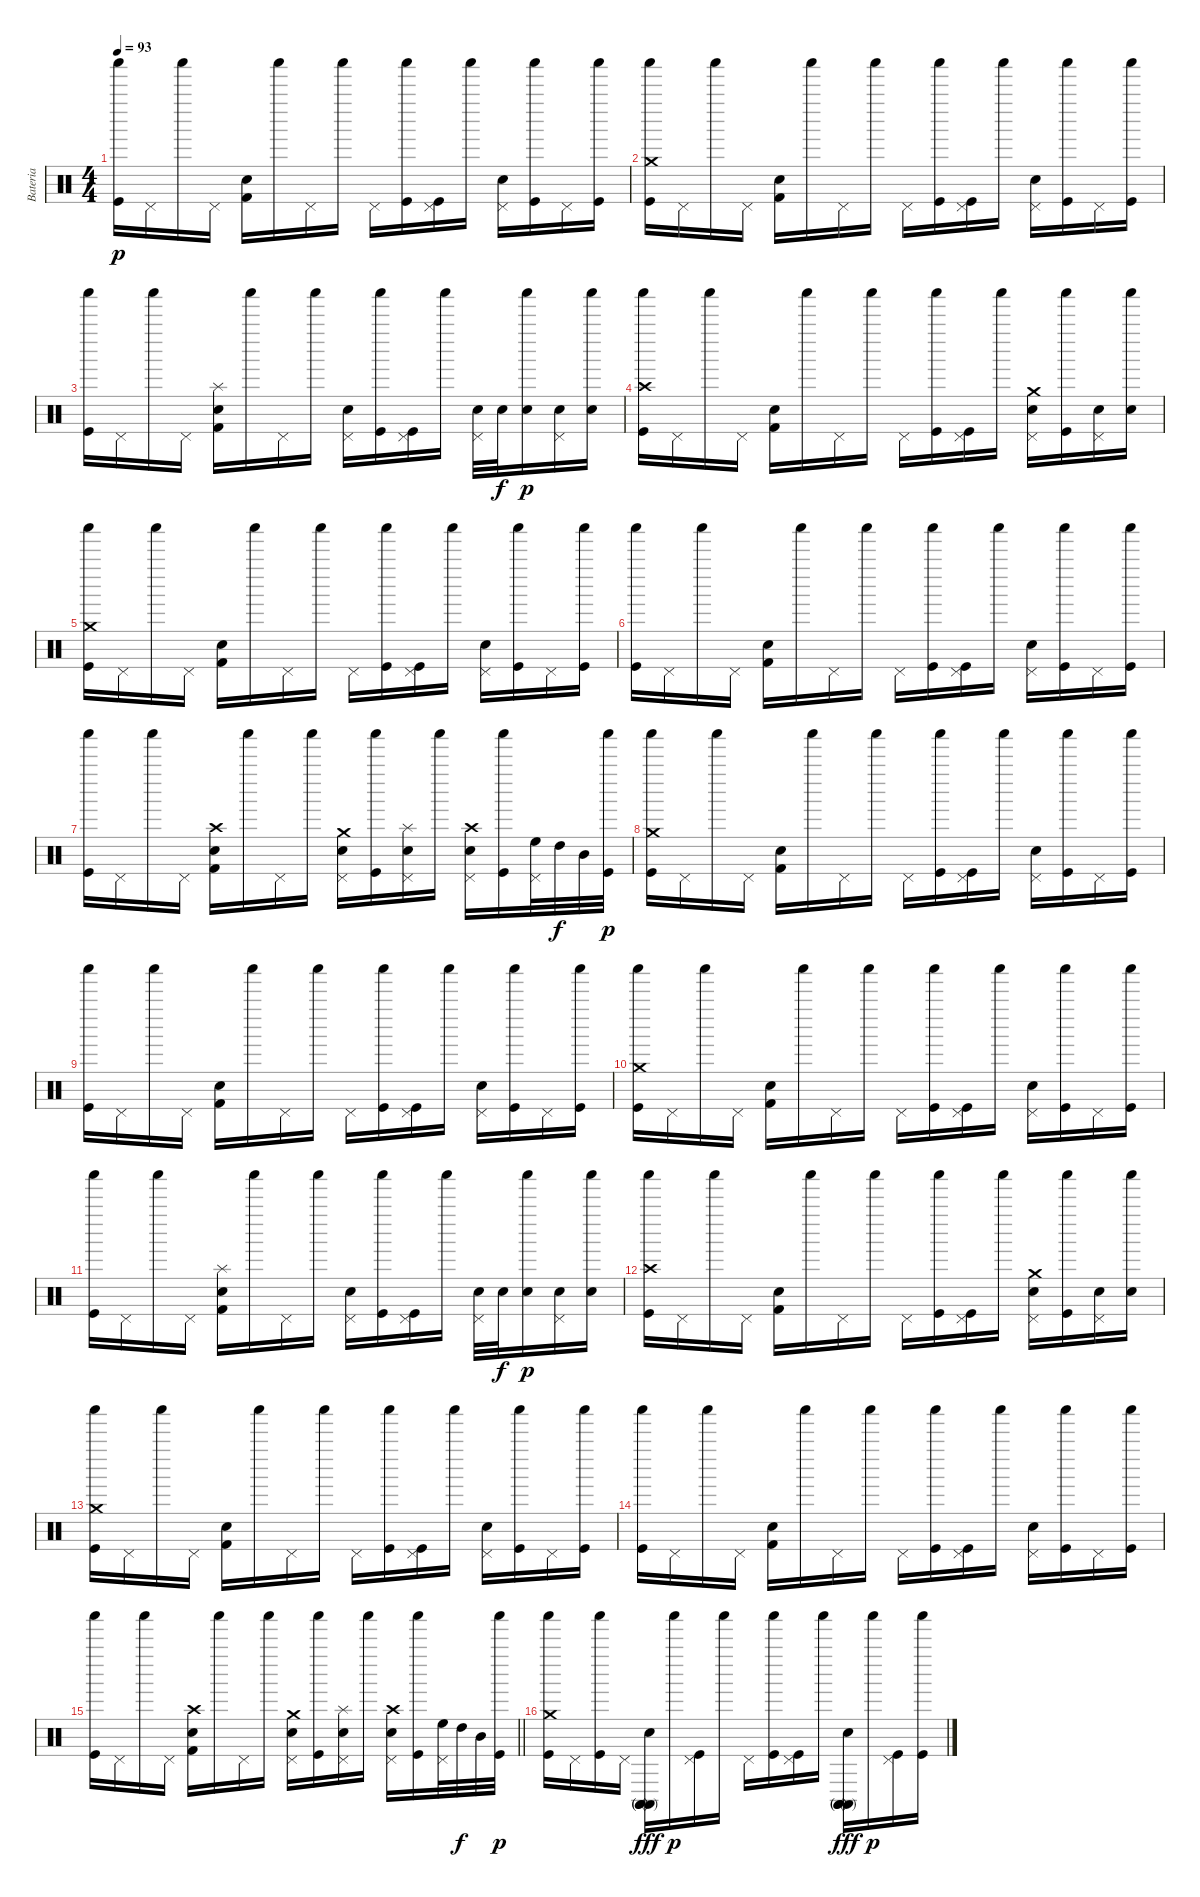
\track ("Bateria" "Bateria") {instrument percussion}
\staff {score}
\articulation defaults
\ts (4 4)
\tempo 93
\clef neutral
\ks c
("Kick (hit)" "Shaker (hit)").16{dy p} "Pedal Hi-Hat (hit)".16 "Shaker (hit)".16 "Pedal Hi-Hat (hit)".16 ("Electric Snare (hit)" "Kick (hit) 2").16 "Shaker (hit)".16 "Pedal Hi-Hat (hit)".16 "Shaker (hit)".16 "Pedal Hi-Hat (hit)".16 ("Kick (hit)" "Shaker (hit)").16 ("Kick (hit)" "Pedal Hi-Hat (hit)").16 "Shaker (hit)".16 ("Electric Snare (hit)" "Pedal Hi-Hat (hit)").16 ("Kick (hit)" "Shaker (hit)").16 "Pedal Hi-Hat (hit)".16 ("Kick (hit)" "Shaker (hit)").16 |
("Kick (hit)" "Shaker (hit)" "Crash medium (hit)").16 "Pedal Hi-Hat (hit)".16 "Shaker (hit)".16 "Pedal Hi-Hat (hit)".16 ("Electric Snare (hit)" "Kick (hit) 2").16 "Shaker (hit)".16 "Pedal Hi-Hat (hit)".16 "Shaker (hit)".16 "Pedal Hi-Hat (hit)".16 ("Kick (hit)" "Shaker (hit)").16 ("Kick (hit)" "Pedal Hi-Hat (hit)").16 "Shaker (hit)".16 ("Electric Snare (hit)" "Pedal Hi-Hat (hit)").16 ("Kick (hit)" "Shaker (hit)").16 "Pedal Hi-Hat (hit)".16 ("Kick (hit)" "Shaker (hit)").16 |
("Kick (hit)" "Shaker (hit)").16 "Pedal Hi-Hat (hit)".16 "Shaker (hit)".16 "Pedal Hi-Hat (hit)".16 ("Electric Snare (hit)" "Kick (hit) 2" "Splash (hit)").16 "Shaker (hit)".16 "Pedal Hi-Hat (hit)".16 "Shaker (hit)".16 ("Electric Snare (hit)" "Pedal Hi-Hat (hit)").16 ("Kick (hit)" "Shaker (hit)").16 ("Kick (hit)" "Pedal Hi-Hat (hit)").16 "Shaker (hit)".16 ("Electric Snare (hit)" "Pedal Hi-Hat (hit)").32 "Electric Snare (hit)".32{dy f} ("Electric Snare (hit)" "Shaker (hit)").16{dy p} ("Electric Snare (hit)" "Pedal Hi-Hat (hit)").16 ("Electric Snare (hit)" "Shaker (hit)").16 |
("Kick (hit)" "Shaker (hit)" "Crash high (hit)").16 "Pedal Hi-Hat (hit)".16 "Shaker (hit)".16 "Pedal Hi-Hat (hit)".16 ("Electric Snare (hit)" "Kick (hit) 2").16 "Shaker (hit)".16 "Pedal Hi-Hat (hit)".16 "Shaker (hit)".16 "Pedal Hi-Hat (hit)".16 ("Kick (hit)" "Shaker (hit)").16 ("Kick (hit)" "Pedal Hi-Hat (hit)").16 "Shaker (hit)".16 ("Electric Snare (hit)" "Pedal Hi-Hat (hit)" "Crash medium (hit)").16 ("Kick (hit)" "Shaker (hit)").16 ("Electric Snare (hit)" "Pedal Hi-Hat (hit)").16 ("Electric Snare (hit)" "Shaker (hit)").16 |
("Kick (hit)" "Shaker (hit)" "Crash medium (hit)").16 "Pedal Hi-Hat (hit)".16 "Shaker (hit)".16 "Pedal Hi-Hat (hit)".16 ("Electric Snare (hit)" "Kick (hit) 2").16 "Shaker (hit)".16 "Pedal Hi-Hat (hit)".16 "Shaker (hit)".16 "Pedal Hi-Hat (hit)".16 ("Kick (hit)" "Shaker (hit)").16 ("Kick (hit)" "Pedal Hi-Hat (hit)").16 "Shaker (hit)".16 ("Electric Snare (hit)" "Pedal Hi-Hat (hit)").16 ("Kick (hit)" "Shaker (hit)").16 "Pedal Hi-Hat (hit)".16 ("Kick (hit)" "Shaker (hit)").16 |
("Kick (hit)" "Shaker (hit)").16 "Pedal Hi-Hat (hit)".16 "Shaker (hit)".16 "Pedal Hi-Hat (hit)".16 ("Electric Snare (hit)" "Kick (hit) 2").16 "Shaker (hit)".16 "Pedal Hi-Hat (hit)".16 "Shaker (hit)".16 "Pedal Hi-Hat (hit)".16 ("Kick (hit)" "Shaker (hit)").16 ("Kick (hit)" "Pedal Hi-Hat (hit)").16 "Shaker (hit)".16 ("Electric Snare (hit)" "Pedal Hi-Hat (hit)").16 ("Kick (hit)" "Shaker (hit)").16 "Pedal Hi-Hat (hit)".16 ("Kick (hit)" "Shaker (hit)").16 |
("Kick (hit)" "Shaker (hit)").16 "Pedal Hi-Hat (hit)".16 "Shaker (hit)".16 "Pedal Hi-Hat (hit)".16 ("Electric Snare (hit)" "Kick (hit) 2" "Crash high (hit)").16 "Shaker (hit)".16 "Pedal Hi-Hat (hit)".16 "Shaker (hit)".16 ("Electric Snare (hit)" "Pedal Hi-Hat (hit)" "Crash medium (hit)").16 ("Kick (hit)" "Shaker (hit)").16 ("Electric Snare (hit)" "Pedal Hi-Hat (hit)" "Splash (hit)").16 "Shaker (hit)".16 ("Electric Snare (hit)" "Pedal Hi-Hat (hit)" "Crash high (hit)").16 ("Kick (hit)" "Shaker (hit)").16 ("High Floor Tom (hit)" "Pedal Hi-Hat (hit)").32 "High Tom (hit)".32{dy f} "Mid Tom (hit)".32 ("Kick (hit)" "Shaker (hit)").32{dy p} |
("Kick (hit)" "Shaker (hit)" "Crash medium (hit)").16 "Pedal Hi-Hat (hit)".16 "Shaker (hit)".16 "Pedal Hi-Hat (hit)".16 ("Electric Snare (hit)" "Kick (hit) 2").16 "Shaker (hit)".16 "Pedal Hi-Hat (hit)".16 "Shaker (hit)".16 "Pedal Hi-Hat (hit)".16 ("Kick (hit)" "Shaker (hit)").16 ("Kick (hit)" "Pedal Hi-Hat (hit)").16 "Shaker (hit)".16 ("Electric Snare (hit)" "Pedal Hi-Hat (hit)").16 ("Kick (hit)" "Shaker (hit)").16 "Pedal Hi-Hat (hit)".16 ("Kick (hit)" "Shaker (hit)").16 |
("Kick (hit)" "Shaker (hit)").16 "Pedal Hi-Hat (hit)".16 "Shaker (hit)".16 "Pedal Hi-Hat (hit)".16 ("Electric Snare (hit)" "Kick (hit) 2").16 "Shaker (hit)".16 "Pedal Hi-Hat (hit)".16 "Shaker (hit)".16 "Pedal Hi-Hat (hit)".16 ("Kick (hit)" "Shaker (hit)").16 ("Kick (hit)" "Pedal Hi-Hat (hit)").16 "Shaker (hit)".16 ("Electric Snare (hit)" "Pedal Hi-Hat (hit)").16 ("Kick (hit)" "Shaker (hit)").16 "Pedal Hi-Hat (hit)".16 ("Kick (hit)" "Shaker (hit)").16 |
("Kick (hit)" "Shaker (hit)" "Crash medium (hit)").16 "Pedal Hi-Hat (hit)".16 "Shaker (hit)".16 "Pedal Hi-Hat (hit)".16 ("Electric Snare (hit)" "Kick (hit) 2").16 "Shaker (hit)".16 "Pedal Hi-Hat (hit)".16 "Shaker (hit)".16 "Pedal Hi-Hat (hit)".16 ("Kick (hit)" "Shaker (hit)").16 ("Kick (hit)" "Pedal Hi-Hat (hit)").16 "Shaker (hit)".16 ("Electric Snare (hit)" "Pedal Hi-Hat (hit)").16 ("Kick (hit)" "Shaker (hit)").16 "Pedal Hi-Hat (hit)".16 ("Kick (hit)" "Shaker (hit)").16 |
("Kick (hit)" "Shaker (hit)").16 "Pedal Hi-Hat (hit)".16 "Shaker (hit)".16 "Pedal Hi-Hat (hit)".16 ("Electric Snare (hit)" "Kick (hit) 2" "Splash (hit)").16 "Shaker (hit)".16 "Pedal Hi-Hat (hit)".16 "Shaker (hit)".16 ("Electric Snare (hit)" "Pedal Hi-Hat (hit)").16 ("Kick (hit)" "Shaker (hit)").16 ("Kick (hit)" "Pedal Hi-Hat (hit)").16 "Shaker (hit)".16 ("Electric Snare (hit)" "Pedal Hi-Hat (hit)").32 "Electric Snare (hit)".32{dy f} ("Electric Snare (hit)" "Shaker (hit)").16{dy p} ("Electric Snare (hit)" "Pedal Hi-Hat (hit)").16 ("Electric Snare (hit)" "Shaker (hit)").16 |
("Kick (hit)" "Shaker (hit)" "Crash high (hit)").16 "Pedal Hi-Hat (hit)".16 "Shaker (hit)".16 "Pedal Hi-Hat (hit)".16 ("Electric Snare (hit)" "Kick (hit) 2").16 "Shaker (hit)".16 "Pedal Hi-Hat (hit)".16 "Shaker (hit)".16 "Pedal Hi-Hat (hit)".16 ("Kick (hit)" "Shaker (hit)").16 ("Kick (hit)" "Pedal Hi-Hat (hit)").16 "Shaker (hit)".16 ("Electric Snare (hit)" "Pedal Hi-Hat (hit)" "Crash medium (hit)").16 ("Kick (hit)" "Shaker (hit)").16 ("Electric Snare (hit)" "Pedal Hi-Hat (hit)").16 ("Electric Snare (hit)" "Shaker (hit)").16 |
("Kick (hit)" "Shaker (hit)" "Crash medium (hit)").16 "Pedal Hi-Hat (hit)".16 "Shaker (hit)".16 "Pedal Hi-Hat (hit)".16 ("Electric Snare (hit)" "Kick (hit) 2").16 "Shaker (hit)".16 "Pedal Hi-Hat (hit)".16 "Shaker (hit)".16 "Pedal Hi-Hat (hit)".16 ("Kick (hit)" "Shaker (hit)").16 ("Kick (hit)" "Pedal Hi-Hat (hit)").16 "Shaker (hit)".16 ("Electric Snare (hit)" "Pedal Hi-Hat (hit)").16 ("Kick (hit)" "Shaker (hit)").16 "Pedal Hi-Hat (hit)".16 ("Kick (hit)" "Shaker (hit)").16 |
("Kick (hit)" "Shaker (hit)").16 "Pedal Hi-Hat (hit)".16 "Shaker (hit)".16 "Pedal Hi-Hat (hit)".16 ("Electric Snare (hit)" "Kick (hit) 2").16 "Shaker (hit)".16 "Pedal Hi-Hat (hit)".16 "Shaker (hit)".16 "Pedal Hi-Hat (hit)".16 ("Kick (hit)" "Shaker (hit)").16 ("Kick (hit)" "Pedal Hi-Hat (hit)").16 "Shaker (hit)".16 ("Electric Snare (hit)" "Pedal Hi-Hat (hit)").16 ("Kick (hit)" "Shaker (hit)").16 "Pedal Hi-Hat (hit)".16 ("Kick (hit)" "Shaker (hit)").16 |
\barLineRight lightlight
("Kick (hit)" "Shaker (hit)").16 "Pedal Hi-Hat (hit)".16 "Shaker (hit)".16 "Pedal Hi-Hat (hit)".16 ("Electric Snare (hit)" "Kick (hit) 2" "Crash high (hit)").16 "Shaker (hit)".16 "Pedal Hi-Hat (hit)".16 "Shaker (hit)".16 ("Electric Snare (hit)" "Pedal Hi-Hat (hit)" "Crash medium (hit)").16 ("Kick (hit)" "Shaker (hit)").16 ("Electric Snare (hit)" "Pedal Hi-Hat (hit)" "Splash (hit)").16 "Shaker (hit)".16 ("Electric Snare (hit)" "Pedal Hi-Hat (hit)" "Crash high (hit)").16 ("Kick (hit)" "Shaker (hit)").16 ("High Floor Tom (hit)" "Pedal Hi-Hat (hit)").32 "High Tom (hit)".32{dy f} "Mid Tom (hit)".32 ("Kick (hit)" "Shaker (hit)").32{dy p} |
("Kick (hit)" "Shaker (hit)" "Crash medium (hit)").16{volume 13} "Pedal Hi-Hat (hit)".16 ("Kick (hit)" "Shaker (hit)").16 "Pedal Hi-Hat (hit)".16 ("Electric Snare (hit)" "Conga high (mute)" "Conga high (mute)" "Conga high (mute)").16{dy fff} "Shaker (hit)".16{dy p} ("Kick (hit)" "Pedal Hi-Hat (hit)").16 "Shaker (hit)".16 "Pedal Hi-Hat (hit)".16 ("Kick (hit)" "Shaker (hit)").16 ("Kick (hit)" "Pedal Hi-Hat (hit)").16 "Shaker (hit)".16 ("Electric Snare (hit)" "Conga high (mute)" "Conga high (mute)" "Conga high (mute)").16{dy fff} "Shaker (hit)".16{dy p} ("Kick (hit)" "Pedal Hi-Hat (hit)").16 ("Kick (hit)" "Shaker (hit)").16
